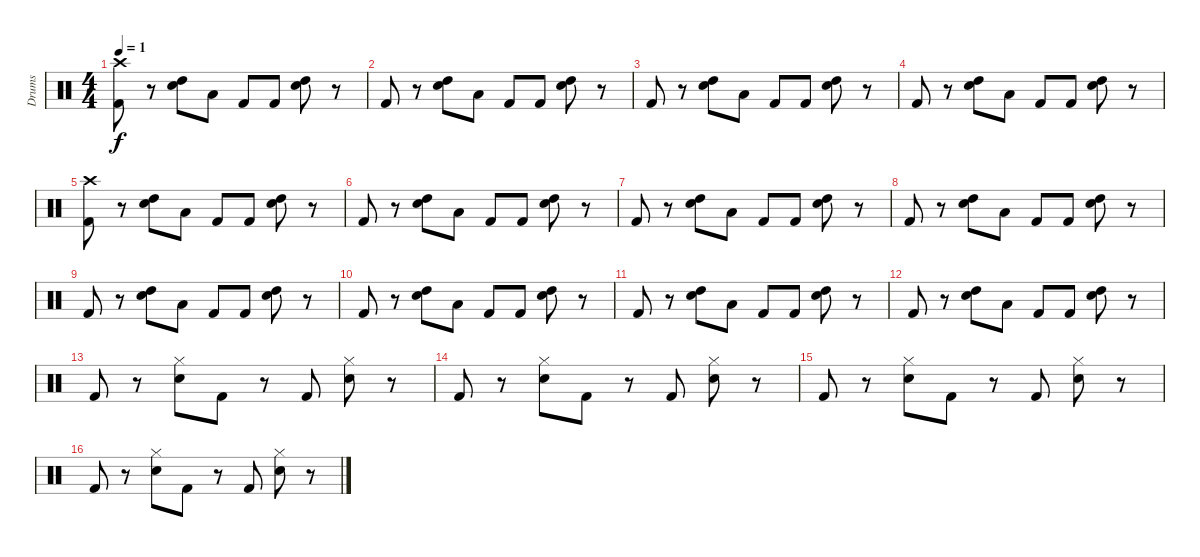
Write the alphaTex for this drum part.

\track ("Drums" "Drums") {instrument percussion}
\staff {score}
\articulation defaults
\ts (4 4)
\tempo 1
\clef neutral
\ks c
("Crash high (hit)" "Kick (hit) 2").8{dy f} r.8 ("Snare (hit) 2" "High Tom (hit)").8 "Low Tom (hit)".8 "Kick (hit) 2".8 "Kick (hit) 2".8 ("Snare (hit) 2" "High Tom (hit)").8 r.8 |
"Kick (hit) 2".8 r.8 ("Snare (hit) 2" "High Tom (hit)").8 "Low Tom (hit)".8 "Kick (hit) 2".8 "Kick (hit) 2".8 ("Snare (hit) 2" "High Tom (hit)").8 r.8 |
"Kick (hit) 2".8 r.8 ("Snare (hit) 2" "High Tom (hit)").8 "Low Tom (hit)".8 "Kick (hit) 2".8 "Kick (hit) 2".8 ("Snare (hit) 2" "High Tom (hit)").8 r.8 |
"Kick (hit) 2".8 r.8 ("Snare (hit) 2" "High Tom (hit)").8 "Low Tom (hit)".8 "Kick (hit) 2".8 "Kick (hit) 2".8 ("Snare (hit) 2" "High Tom (hit)").8 r.8 |
("Crash high (hit)" "Kick (hit) 2").8 r.8 ("Snare (hit) 2" "High Tom (hit)").8 "Low Tom (hit)".8 "Kick (hit) 2".8 "Kick (hit) 2".8 ("Snare (hit) 2" "High Tom (hit)").8 r.8 |
"Kick (hit) 2".8 r.8 ("Snare (hit) 2" "High Tom (hit)").8 "Low Tom (hit)".8 "Kick (hit) 2".8 "Kick (hit) 2".8 ("Snare (hit) 2" "High Tom (hit)").8 r.8 |
"Kick (hit) 2".8 r.8 ("Snare (hit) 2" "High Tom (hit)").8 "Low Tom (hit)".8 "Kick (hit) 2".8 "Kick (hit) 2".8 ("Snare (hit) 2" "High Tom (hit)").8 r.8 |
"Kick (hit) 2".8 r.8 ("Snare (hit) 2" "High Tom (hit)").8 "Low Tom (hit)".8 "Kick (hit) 2".8 "Kick (hit) 2".8 ("Snare (hit) 2" "High Tom (hit)").8 r.8 |
"Kick (hit) 2".8 r.8 ("Snare (hit) 2" "High Tom (hit)").8 "Low Tom (hit)".8 "Kick (hit) 2".8 "Kick (hit) 2".8 ("Snare (hit) 2" "High Tom (hit)").8 r.8 |
"Kick (hit) 2".8 r.8 ("Snare (hit) 2" "High Tom (hit)").8 "Low Tom (hit)".8 "Kick (hit) 2".8 "Kick (hit) 2".8 ("Snare (hit) 2" "High Tom (hit)").8 r.8 |
"Kick (hit) 2".8 r.8 ("Snare (hit) 2" "High Tom (hit)").8 "Low Tom (hit)".8 "Kick (hit) 2".8 "Kick (hit) 2".8 ("Snare (hit) 2" "High Tom (hit)").8 r.8 |
"Kick (hit) 2".8 r.8 ("Snare (hit) 2" "High Tom (hit)").8 "Low Tom (hit)".8 "Kick (hit) 2".8 "Kick (hit) 2".8 ("Snare (hit) 2" "High Tom (hit)").8 r.8 |
"Kick (hit) 2".8 r.8 ("Hi-Hat (closed)" "Snare (hit) 2").8 "Kick (hit) 2".8 r.8 "Kick (hit) 2".8 ("Hi-Hat (closed)" "Snare (hit) 2").8 r.8 |
"Kick (hit) 2".8 r.8 ("Hi-Hat (closed)" "Snare (hit) 2").8 "Kick (hit) 2".8 r.8 "Kick (hit) 2".8 ("Hi-Hat (closed)" "Snare (hit) 2").8 r.8 |
"Kick (hit) 2".8 r.8 ("Hi-Hat (closed)" "Snare (hit) 2").8 "Kick (hit) 2".8 r.8 "Kick (hit) 2".8 ("Hi-Hat (closed)" "Snare (hit) 2").8 r.8 |
"Kick (hit) 2".8 r.8 ("Hi-Hat (closed)" "Snare (hit) 2").8 "Kick (hit) 2".8 r.8 "Kick (hit) 2".8 ("Hi-Hat (closed)" "Snare (hit) 2").8 r.8
